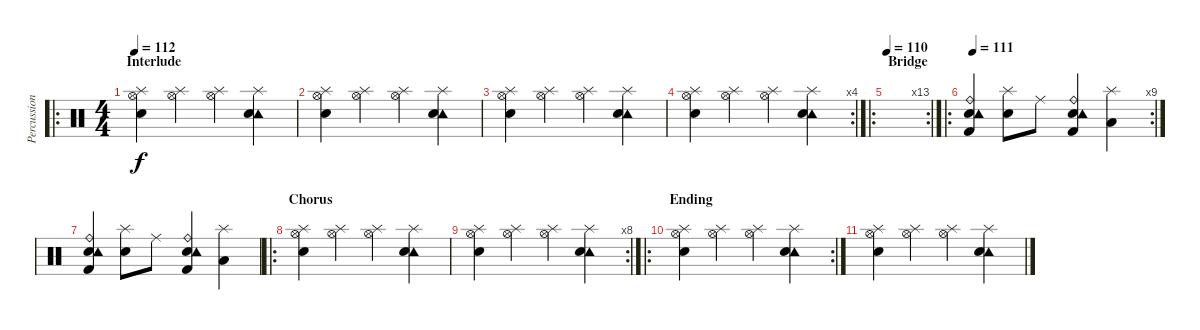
\track ("Percussion" "Percussion") {instrument percussion}
\staff {score}
\articulation defaults
\ro
\ts (4 4)
\section ("" "Interlude")
\tempo 112
\clef neutral
\ks c
("Hi-Hat (open)" "Splash (hit)" "Snare (hit) 2").4{dy f} ("Hi-Hat (open)" "Splash (hit)").4 ("Hi-Hat (open)" "Splash (hit)").4 ("Tambourine (hit)" "Splash (hit)" "Snare (hit) 2").4 |
("Hi-Hat (open)" "Splash (hit)" "Snare (hit) 2").4 ("Hi-Hat (open)" "Splash (hit)").4 ("Hi-Hat (open)" "Splash (hit)").4 ("Tambourine (hit)" "Splash (hit)" "Snare (hit) 2").4 |
("Hi-Hat (open)" "Splash (hit)" "Snare (hit) 2").4 ("Hi-Hat (open)" "Splash (hit)").4 ("Hi-Hat (open)" "Splash (hit)").4 ("Tambourine (hit)" "Splash (hit)" "Snare (hit) 2").4 |
\rc 4
("Hi-Hat (open)" "Splash (hit)" "Snare (hit) 2").4 ("Hi-Hat (open)" "Splash (hit)").4 ("Hi-Hat (open)" "Splash (hit)").4 ("Tambourine (hit)" "Splash (hit)" "Snare (hit) 2").4 |
\ro
\rc 13
\section ("" "Bridge")
\tempo 110
|
\ro
\rc 9
\tempo 111
("Snare (hit) 2" "Ride (bell)" "Tambourine (hit)" "Kick (hit) 2").4 ("Splash (hit)" "Electric Snare (hit)").8 "Ride (middle)".8 ("Snare (hit) 2" "Ride (bell)" "Tambourine (hit)" "Kick (hit) 2").4 ("Splash (hit)" "Low Floor Tom (hit)").4 |
("Snare (hit) 2" "Ride (bell)" "Tambourine (hit)" "Kick (hit) 2").4 ("Splash (hit)" "Electric Snare (hit)").8 "Ride (middle)".8 ("Snare (hit) 2" "Ride (bell)" "Tambourine (hit)" "Kick (hit) 2").4 ("Splash (hit)" "Low Floor Tom (hit)").4 |
\ro
\section ("" "Chorus")
("Hi-Hat (open)" "Splash (hit)" "Snare (hit) 2").4 ("Hi-Hat (open)" "Splash (hit)").4 ("Hi-Hat (open)" "Splash (hit)").4 ("Tambourine (hit)" "Splash (hit)" "Snare (hit) 2").4 |
\rc 8
("Hi-Hat (open)" "Splash (hit)" "Snare (hit) 2").4 ("Hi-Hat (open)" "Splash (hit)").4 ("Hi-Hat (open)" "Splash (hit)").4 ("Tambourine (hit)" "Splash (hit)" "Snare (hit) 2").4 |
\ro
\rc 2
\section ("" "Ending")
("Hi-Hat (open)" "Splash (hit)" "Snare (hit) 2").4 ("Hi-Hat (open)" "Splash (hit)").4 ("Hi-Hat (open)" "Splash (hit)").4 ("Tambourine (hit)" "Splash (hit)" "Snare (hit) 2").4 |
("Hi-Hat (open)" "Splash (hit)" "Snare (hit) 2").4 ("Hi-Hat (open)" "Splash (hit)").4 ("Hi-Hat (open)" "Splash (hit)").4 ("Tambourine (hit)" "Splash (hit)" "Snare (hit) 2").4
